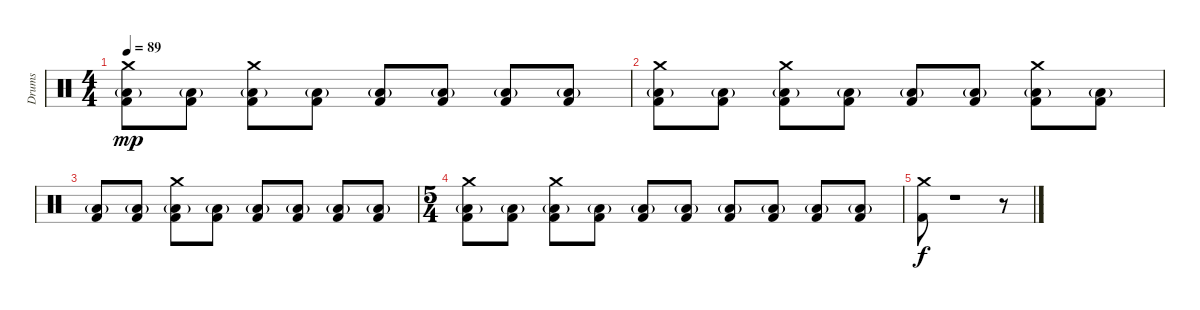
\track ("Drums" "Drums") {instrument percussion}
\staff {score}
\articulation defaults
\ts (4 4)
\tempo 89
\clef neutral
\ks c
("Crash medium (hit)" "Low Floor Tom (hit)"{g} "Kick (hit) 2").8{dy mp} ("Low Floor Tom (hit)"{g} "Kick (hit) 2").8 ("Crash medium (hit)" "Low Floor Tom (hit)"{g} "Kick (hit) 2").8 ("Low Floor Tom (hit)"{g} "Kick (hit) 2").8 ("Low Floor Tom (hit)"{g} "Kick (hit) 2").8 ("Low Floor Tom (hit)"{g} "Kick (hit) 2").8 ("Low Floor Tom (hit)"{g} "Kick (hit) 2").8 ("Low Floor Tom (hit)"{g} "Kick (hit) 2").8 |
("Crash medium (hit)" "Low Floor Tom (hit)"{g} "Kick (hit) 2").8 ("Low Floor Tom (hit)"{g} "Kick (hit) 2").8 ("Crash medium (hit)" "Low Floor Tom (hit)"{g} "Kick (hit) 2").8 ("Low Floor Tom (hit)"{g} "Kick (hit) 2").8 ("Low Floor Tom (hit)"{g} "Kick (hit) 2").8 ("Low Floor Tom (hit)"{g} "Kick (hit) 2").8 ("Crash medium (hit)" "Low Floor Tom (hit)"{g} "Kick (hit) 2").8 ("Low Floor Tom (hit)"{g} "Kick (hit) 2").8 |
("Low Floor Tom (hit)"{g} "Kick (hit) 2").8 ("Low Floor Tom (hit)"{g} "Kick (hit) 2").8 ("Crash medium (hit)" "Low Floor Tom (hit)"{g} "Kick (hit) 2").8 ("Low Floor Tom (hit)"{g} "Kick (hit) 2").8 ("Low Floor Tom (hit)"{g} "Kick (hit) 2").8 ("Low Floor Tom (hit)"{g} "Kick (hit) 2").8 ("Low Floor Tom (hit)"{g} "Kick (hit) 2").8 ("Low Floor Tom (hit)"{g} "Kick (hit) 2").8 |
\ts (5 4)
("Crash medium (hit)" "Low Floor Tom (hit)"{g} "Kick (hit) 2").8 ("Low Floor Tom (hit)"{g} "Kick (hit) 2").8 ("Crash medium (hit)" "Low Floor Tom (hit)"{g} "Kick (hit) 2").8{volume 0} ("Low Floor Tom (hit)"{g} "Kick (hit) 2").8 ("Low Floor Tom (hit)"{g} "Kick (hit) 2").8 ("Low Floor Tom (hit)"{g} "Kick (hit) 2").8 ("Low Floor Tom (hit)"{g} "Kick (hit) 2").8 ("Low Floor Tom (hit)"{g} "Kick (hit) 2").8 ("Low Floor Tom (hit)"{g} "Kick (hit) 2").8 ("Low Floor Tom (hit)"{g} "Kick (hit) 2").8 |
("Crash medium (hit)" "Kick (hit) 2").8{dy f} r.1 r.8
